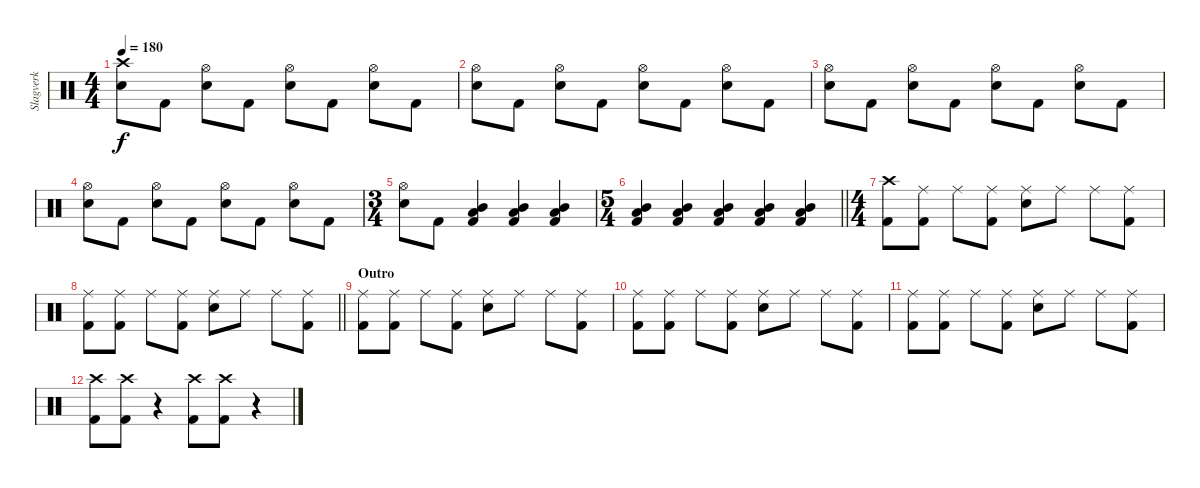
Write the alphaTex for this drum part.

\track ("Slagverk" "Slagverk") {instrument percussion}
\staff {score}
\articulation defaults
\ts (4 4)
\tempo 180
\clef neutral
\ks c
("Crash high (hit)" "Electric Snare (hit)").8{dy f} "Kick (hit) 2".8 ("Hi-Hat (open)" "Electric Snare (hit)").8 "Kick (hit) 2".8 ("Hi-Hat (open)" "Electric Snare (hit)").8 "Kick (hit) 2".8 ("Hi-Hat (open)" "Electric Snare (hit)").8 "Kick (hit) 2".8 |
("Hi-Hat (open)" "Electric Snare (hit)").8 "Kick (hit) 2".8 ("Hi-Hat (open)" "Electric Snare (hit)").8 "Kick (hit) 2".8 ("Hi-Hat (open)" "Electric Snare (hit)").8 "Kick (hit) 2".8 ("Hi-Hat (open)" "Electric Snare (hit)").8 "Kick (hit) 2".8 |
("Hi-Hat (open)" "Electric Snare (hit)").8 "Kick (hit) 2".8 ("Hi-Hat (open)" "Electric Snare (hit)").8 "Kick (hit) 2".8 ("Hi-Hat (open)" "Electric Snare (hit)").8 "Kick (hit) 2".8 ("Hi-Hat (open)" "Electric Snare (hit)").8 "Kick (hit) 2".8 |
("Hi-Hat (open)" "Electric Snare (hit)").8 "Kick (hit) 2".8 ("Hi-Hat (open)" "Electric Snare (hit)").8 "Kick (hit) 2".8 ("Hi-Hat (open)" "Electric Snare (hit)").8 "Kick (hit) 2".8 ("Hi-Hat (open)" "Electric Snare (hit)").8 "Kick (hit) 2".8 |
\ts (3 4)
("Hi-Hat (open)" "Electric Snare (hit)").8 "Kick (hit) 2".8 ("Mid Tom (hit)" "Low Tom (hit)" "Kick (hit) 2").4 ("Mid Tom (hit)" "Low Tom (hit)" "Kick (hit) 2").4 ("Mid Tom (hit)" "Low Tom (hit)" "Kick (hit) 2").4 |
\ts (5 4)
\barLineRight lightlight
("Mid Tom (hit)" "Low Tom (hit)" "Kick (hit) 2").4 ("Mid Tom (hit)" "Low Tom (hit)" "Kick (hit) 2").4 ("Mid Tom (hit)" "Low Tom (hit)" "Kick (hit) 2").4 ("Mid Tom (hit)" "Low Tom (hit)" "Kick (hit) 2").4 ("Mid Tom (hit)" "Low Tom (hit)" "Kick (hit) 2").4 |
\ts (4 4)
("Crash high (hit)" "Kick (hit) 2").8 ("Ride (middle)" "Kick (hit) 2").8 "Ride (middle)".8 ("Ride (middle)" "Kick (hit) 2").8 ("Ride (middle)" "Electric Snare (hit)").8 "Ride (middle)".8 "Ride (middle)".8 ("Ride (middle)" "Kick (hit) 2").8 |
\barLineRight lightlight
("Ride (middle)" "Kick (hit) 2").8 ("Ride (middle)" "Kick (hit) 2").8 "Ride (middle)".8 ("Ride (middle)" "Kick (hit) 2").8 ("Ride (middle)" "Electric Snare (hit)").8 "Ride (middle)".8 "Ride (middle)".8 ("Ride (middle)" "Kick (hit) 2").8 |
\section ("" "Outro")
("Ride (middle)" "Kick (hit) 2").8 ("Ride (middle)" "Kick (hit) 2").8 "Ride (middle)".8 ("Ride (middle)" "Kick (hit) 2").8 ("Ride (middle)" "Electric Snare (hit)").8 "Ride (middle)".8 "Ride (middle)".8 ("Ride (middle)" "Kick (hit) 2").8 |
("Ride (middle)" "Kick (hit) 2").8 ("Ride (middle)" "Kick (hit) 2").8 "Ride (middle)".8 ("Ride (middle)" "Kick (hit) 2").8 ("Ride (middle)" "Electric Snare (hit)").8 "Ride (middle)".8 "Ride (middle)".8 ("Ride (middle)" "Kick (hit) 2").8 |
("Ride (middle)" "Kick (hit) 2").8 ("Ride (middle)" "Kick (hit) 2").8 "Ride (middle)".8 ("Ride (middle)" "Kick (hit) 2").8 ("Ride (middle)" "Electric Snare (hit)").8 "Ride (middle)".8 "Ride (middle)".8 ("Ride (middle)" "Kick (hit) 2").8 |
("Crash high (hit)" "Kick (hit) 2").8 ("Crash high (hit)" "Kick (hit) 2").8 r.4 ("Crash high (hit)" "Kick (hit) 2").8 ("Crash high (hit)" "Kick (hit) 2").8 r.4
